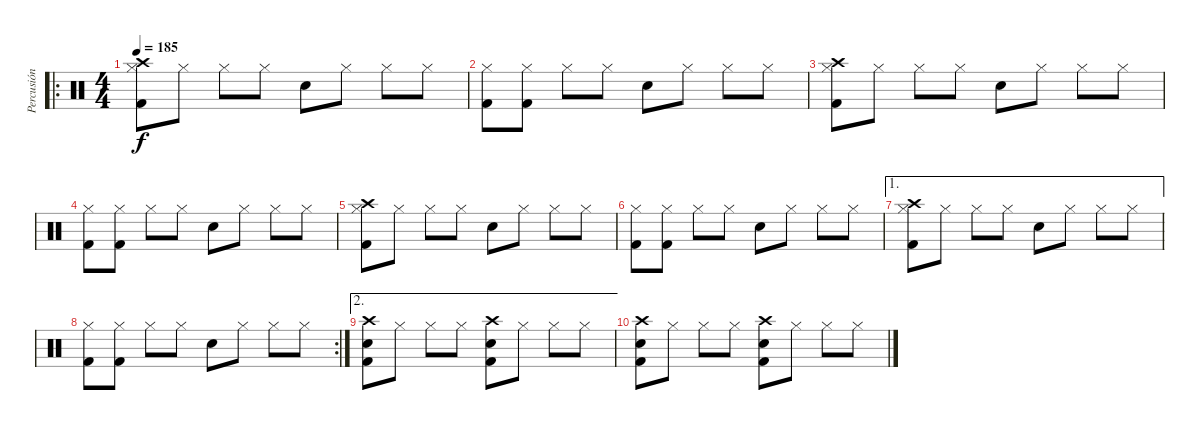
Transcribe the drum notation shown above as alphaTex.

\track ("Percusión" "Percusión") {instrument percussion}
\staff {score}
\articulation defaults
\ro
\ts (4 4)
\tempo 185
\clef neutral
\ks c
("Crash high (hit)" "Hi-Hat (closed)" "Kick (hit) 2").8{dy f} "Hi-Hat (closed)".8 "Hi-Hat (closed)".8 "Hi-Hat (closed)".8 "Electric Snare (hit)".8 "Hi-Hat (closed)".8 "Hi-Hat (closed)".8 "Hi-Hat (closed)".8 |
("Hi-Hat (closed)" "Kick (hit) 2").8 ("Hi-Hat (closed)" "Kick (hit) 2").8 "Hi-Hat (closed)".8 "Hi-Hat (closed)".8 "Electric Snare (hit)".8 "Hi-Hat (closed)".8 "Hi-Hat (closed)".8 "Hi-Hat (closed)".8 |
("Crash high (hit)" "Hi-Hat (closed)" "Kick (hit) 2").8 "Hi-Hat (closed)".8 "Hi-Hat (closed)".8 "Hi-Hat (closed)".8 "Electric Snare (hit)".8 "Hi-Hat (closed)".8 "Hi-Hat (closed)".8 "Hi-Hat (closed)".8 |
("Hi-Hat (closed)" "Kick (hit) 2").8 ("Hi-Hat (closed)" "Kick (hit) 2").8 "Hi-Hat (closed)".8 "Hi-Hat (closed)".8 "Electric Snare (hit)".8 "Hi-Hat (closed)".8 "Hi-Hat (closed)".8 "Hi-Hat (closed)".8 |
("Crash high (hit)" "Hi-Hat (closed)" "Kick (hit) 2").8 "Hi-Hat (closed)".8 "Hi-Hat (closed)".8 "Hi-Hat (closed)".8 "Electric Snare (hit)".8 "Hi-Hat (closed)".8 "Hi-Hat (closed)".8 "Hi-Hat (closed)".8 |
("Hi-Hat (closed)" "Kick (hit) 2").8 ("Hi-Hat (closed)" "Kick (hit) 2").8 "Hi-Hat (closed)".8 "Hi-Hat (closed)".8 "Electric Snare (hit)".8 "Hi-Hat (closed)".8 "Hi-Hat (closed)".8 "Hi-Hat (closed)".8 |
\ae 1
("Crash high (hit)" "Hi-Hat (closed)" "Kick (hit) 2").8 "Hi-Hat (closed)".8 "Hi-Hat (closed)".8 "Hi-Hat (closed)".8 "Electric Snare (hit)".8 "Hi-Hat (closed)".8 "Hi-Hat (closed)".8 "Hi-Hat (closed)".8 |
\rc 2
("Hi-Hat (closed)" "Kick (hit) 2").8 ("Hi-Hat (closed)" "Kick (hit) 2").8 "Hi-Hat (closed)".8 "Hi-Hat (closed)".8 "Electric Snare (hit)".8 "Hi-Hat (closed)".8 "Hi-Hat (closed)".8 "Hi-Hat (closed)".8 |
\ae 2
("Crash high (hit)" "Electric Snare (hit)" "Kick (hit) 2").8 "Hi-Hat (closed)".8 "Hi-Hat (closed)".8 "Hi-Hat (closed)".8 ("Crash high (hit)" "Electric Snare (hit)" "Kick (hit) 2").8 "Hi-Hat (closed)".8 "Hi-Hat (closed)".8 "Hi-Hat (closed)".8 |
("Crash high (hit)" "Electric Snare (hit)" "Kick (hit) 2").8 "Hi-Hat (closed)".8 "Hi-Hat (closed)".8 "Hi-Hat (closed)".8 ("Crash high (hit)" "Electric Snare (hit)" "Kick (hit) 2").8 "Hi-Hat (closed)".8 "Hi-Hat (closed)".8 "Hi-Hat (closed)".8
